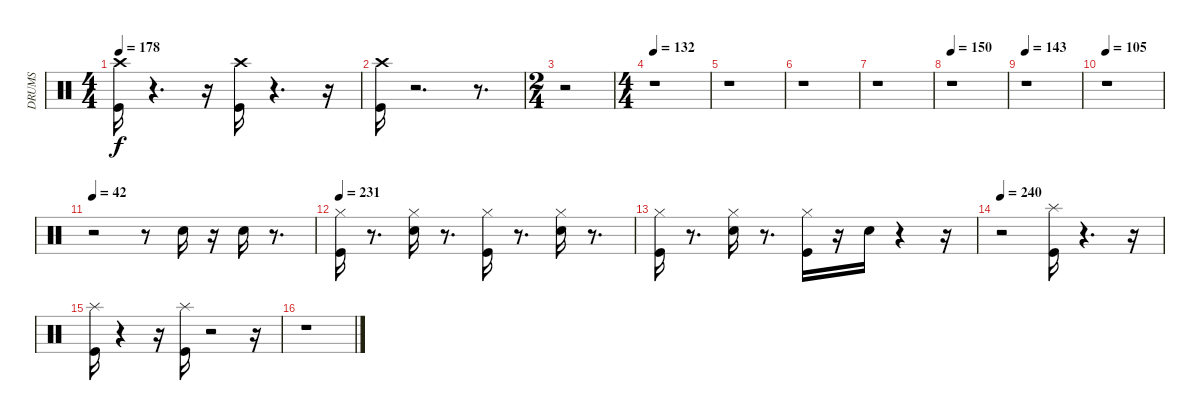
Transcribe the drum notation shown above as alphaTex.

\track ("DRUMS" "DRUMS") {instrument percussion}
\staff {score}
\articulation defaults
\ts (4 4)
\tempo 178
\clef neutral
\ks c
("Crash high (hit)" "Kick (hit)").16{dy f} r.4{d} r.16 ("Kick (hit)" "Crash high (hit)").16 r.4{d} r.16 |
("Crash high (hit)" "Kick (hit)").16 r.2{d} r.8{d} |
\ts (2 4)
r.2 |
\ts (4 4)
\tempo 132
r.1 |
r.1 |
r.1 |
r.1 |
\tempo 150
r.1 |
\tempo 143
r.1 |
\tempo 105
r.1 |
\tempo 42
r.2 r.8 "Electric Snare (hit)".16 r.16 "Electric Snare (hit)".16 r.8{d} |
\tempo 231
("Kick (hit)" "Hi-Hat (closed)").16 r.8{d} ("Electric Snare (hit)" "Hi-Hat (closed)").16 r.8{d} ("Kick (hit)" "Hi-Hat (closed)").16 r.8{d} ("Electric Snare (hit)" "Hi-Hat (closed)").16 r.8{d} |
("Kick (hit)" "Hi-Hat (closed)").16 r.8{d} ("Electric Snare (hit)" "Hi-Hat (closed)").16 r.8{d} ("Kick (hit)" "Hi-Hat (closed)").16 r.16 "Electric Snare (hit)".16 r.4 r.16 |
\tempo 240
r.2 ("Kick (hit)" "Splash (hit)").16 r.4{d} r.16 |
("Kick (hit)" "Splash (hit)").16 r.4 r.16 ("Kick (hit)" "Splash (hit)").16 r.2 r.16 |
r.1
